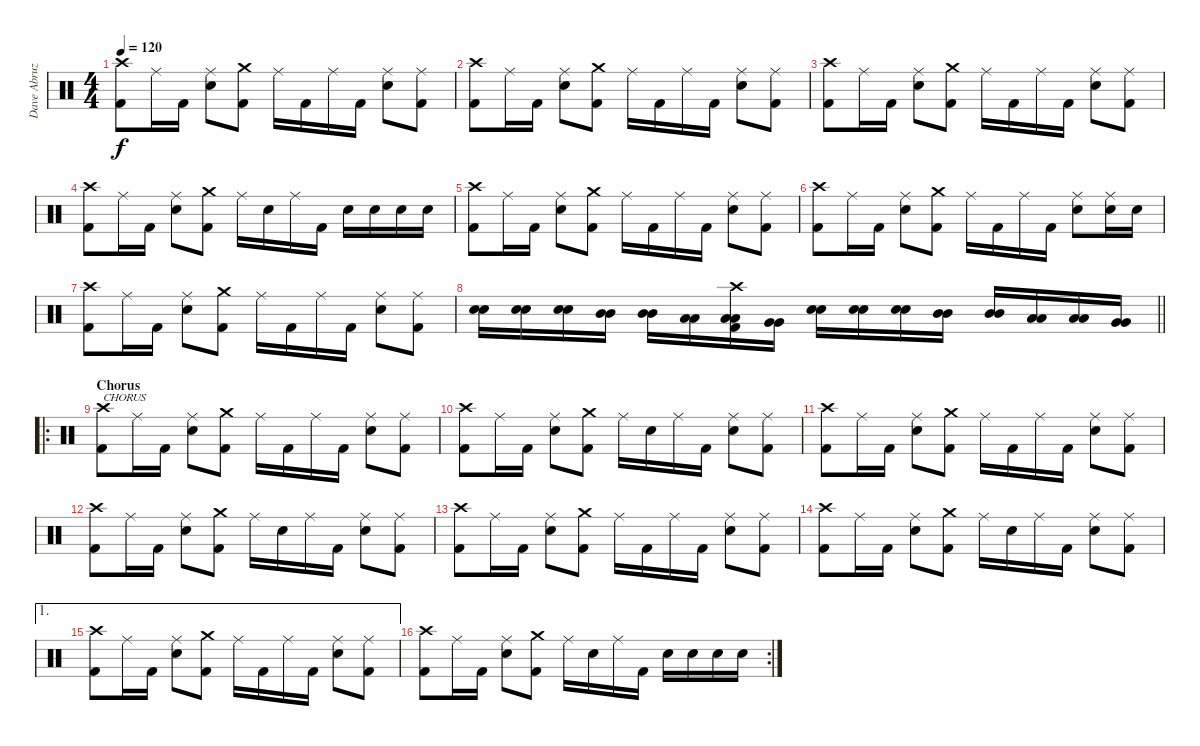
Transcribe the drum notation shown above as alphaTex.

\track ("Dave Abruzzesse" "Dave Abruz") {instrument percussion}
\staff {score}
\articulation defaults
\ts (4 4)
\tempo 120
\clef neutral
\ks c
("Crash high (hit)" "Kick (hit) 2").8{dy f} "Ride (middle)".16 "Kick (hit) 2".16 ("Ride (middle)" "Electric Snare (hit)").8 ("Crash medium (hit)" "Kick (hit) 2").8 "Ride (middle)".16 "Kick (hit) 2".16 "Ride (middle)".16 "Kick (hit) 2".16 ("Ride (middle)" "Electric Snare (hit)").8 ("Ride (middle)" "Kick (hit) 2").8 |
("Crash high (hit)" "Kick (hit) 2").8 "Ride (middle)".16 "Kick (hit) 2".16 ("Ride (middle)" "Electric Snare (hit)").8 ("Crash medium (hit)" "Kick (hit) 2").8 "Ride (middle)".16 "Kick (hit) 2".16 "Ride (middle)".16 "Kick (hit) 2".16 ("Ride (middle)" "Electric Snare (hit)").8 ("Ride (middle)" "Kick (hit) 2").8 |
("Crash high (hit)" "Kick (hit) 2").8 "Ride (middle)".16 "Kick (hit) 2".16 ("Ride (middle)" "Electric Snare (hit)").8 ("Crash medium (hit)" "Kick (hit) 2").8 "Ride (middle)".16 "Kick (hit) 2".16 "Ride (middle)".16 "Kick (hit) 2".16 ("Ride (middle)" "Electric Snare (hit)").8 ("Ride (middle)" "Kick (hit) 2").8 |
("Crash high (hit)" "Kick (hit) 2").8 "Ride (middle)".16 "Kick (hit) 2".16 ("Ride (middle)" "Electric Snare (hit)").8 ("Crash medium (hit)" "Kick (hit) 2").8 "Ride (middle)".16 "Electric Snare (hit)".16 "Ride (middle)".16 "Kick (hit) 2".16 "Electric Snare (hit)".16 "Electric Snare (hit)".16 "Electric Snare (hit)".16 "Electric Snare (hit)".16 |
("Crash high (hit)" "Kick (hit) 2").8 "Ride (middle)".16 "Kick (hit) 2".16 ("Ride (middle)" "Electric Snare (hit)").8 ("Crash medium (hit)" "Kick (hit) 2").8 "Ride (middle)".16 "Kick (hit) 2".16 "Ride (middle)".16 "Kick (hit) 2".16 ("Ride (middle)" "Electric Snare (hit)").8 ("Ride (middle)" "Kick (hit) 2").8 |
("Crash high (hit)" "Kick (hit) 2").8 "Ride (middle)".16 "Kick (hit) 2".16 ("Ride (middle)" "Electric Snare (hit)").8 ("Crash medium (hit)" "Kick (hit) 2").8 "Ride (middle)".16 "Kick (hit) 2".16 "Ride (middle)".16 "Kick (hit) 2".16 ("Ride (middle)" "Electric Snare (hit)").8 ("Ride (middle)" "Electric Snare (hit)").16 "Electric Snare (hit)".16 |
("Crash high (hit)" "Kick (hit) 2").8 "Ride (middle)".16 "Kick (hit) 2".16 ("Ride (middle)" "Electric Snare (hit)").8 ("Crash medium (hit)" "Kick (hit) 2").8 "Ride (middle)".16 "Kick (hit) 2".16 "Ride (middle)".16 "Kick (hit) 2".16 ("Ride (middle)" "Electric Snare (hit)").8 ("Ride (middle)" "Kick (hit) 2").8 |
\barLineRight lightlight
("Electric Snare (hit)" "Electric Snare (hit)").16 ("Electric Snare (hit)" "Electric Snare (hit)").16 ("Electric Snare (hit)" "Electric Snare (hit)").16 ("Mid Tom (hit)" "Mid Tom (hit)").16 ("Mid Tom (hit)" "Mid Tom (hit)").16 ("Low Tom (hit)" "Low Tom (hit)").16 ("Crash high (hit)" "Kick (hit) 2" "Low Tom (hit)" "Low Tom (hit)").16 ("Very Low Tom (hit)" "Very Low Tom (hit)").16 ("Electric Snare (hit)" "Electric Snare (hit)").16 ("Electric Snare (hit)" "Electric Snare (hit)").16 ("Electric Snare (hit)" "Electric Snare (hit)").16 ("Mid Tom (hit)" "Mid Tom (hit)").16 ("Mid Tom (hit)" "Mid Tom (hit)").16 ("Low Tom (hit)" "Low Tom (hit)").16 ("Low Tom (hit)" "Low Tom (hit)").16 ("Very Low Tom (hit)" "Very Low Tom (hit)").16 |
\ro
\section ("" "Chorus")
("Crash high (hit)" "Kick (hit) 2").8{txt "CHORUS"} "Ride (middle)".16 "Kick (hit) 2".16 ("Ride (middle)" "Electric Snare (hit)").8 ("Crash medium (hit)" "Kick (hit) 2").8 "Ride (middle)".16 "Kick (hit) 2".16 "Ride (middle)".16 "Kick (hit) 2".16 ("Ride (middle)" "Electric Snare (hit)").8 ("Ride (middle)" "Kick (hit) 2").8 |
("Crash high (hit)" "Kick (hit) 2").8 "Ride (middle)".16 "Kick (hit) 2".16 ("Ride (middle)" "Electric Snare (hit)").8 ("Crash medium (hit)" "Kick (hit) 2").8 "Ride (middle)".16 "Electric Snare (hit)".16 "Ride (middle)".16 "Kick (hit) 2".16 ("Ride (middle)" "Electric Snare (hit)").8 ("Ride (middle)" "Kick (hit) 2").8 |
("Crash high (hit)" "Kick (hit) 2").8 "Ride (middle)".16 "Kick (hit) 2".16 ("Ride (middle)" "Electric Snare (hit)").8 ("Crash medium (hit)" "Kick (hit) 2").8 "Ride (middle)".16 "Kick (hit) 2".16 "Ride (middle)".16 "Kick (hit) 2".16 ("Ride (middle)" "Electric Snare (hit)").8 ("Ride (middle)" "Kick (hit) 2").8 |
("Crash high (hit)" "Kick (hit) 2").8 "Ride (middle)".16 "Kick (hit) 2".16 ("Ride (middle)" "Electric Snare (hit)").8 ("Crash medium (hit)" "Kick (hit) 2").8 "Ride (middle)".16 "Electric Snare (hit)".16 "Ride (middle)".16 "Kick (hit) 2".16 ("Ride (middle)" "Electric Snare (hit)").8 ("Ride (middle)" "Kick (hit) 2").8 |
("Crash high (hit)" "Kick (hit) 2").8 "Ride (middle)".16 "Kick (hit) 2".16 ("Ride (middle)" "Electric Snare (hit)").8 ("Crash medium (hit)" "Kick (hit) 2").8 "Ride (middle)".16 "Kick (hit) 2".16 "Ride (middle)".16 "Kick (hit) 2".16 ("Ride (middle)" "Electric Snare (hit)").8 ("Ride (middle)" "Kick (hit) 2").8 |
("Crash high (hit)" "Kick (hit) 2").8 "Ride (middle)".16 "Kick (hit) 2".16 ("Ride (middle)" "Electric Snare (hit)").8 ("Crash medium (hit)" "Kick (hit) 2").8 "Ride (middle)".16 "Electric Snare (hit)".16 "Ride (middle)".16 "Kick (hit) 2".16 ("Ride (middle)" "Electric Snare (hit)").8 ("Ride (middle)" "Kick (hit) 2").8 |
\ae 1
("Crash high (hit)" "Kick (hit) 2").8 "Ride (middle)".16 "Kick (hit) 2".16 ("Ride (middle)" "Electric Snare (hit)").8 ("Crash medium (hit)" "Kick (hit) 2").8 "Ride (middle)".16 "Kick (hit) 2".16 "Ride (middle)".16 "Kick (hit) 2".16 ("Ride (middle)" "Electric Snare (hit)").8 ("Ride (middle)" "Kick (hit) 2").8 |
\rc 2
("Crash high (hit)" "Kick (hit) 2").8 "Ride (middle)".16 "Kick (hit) 2".16 ("Ride (middle)" "Electric Snare (hit)").8 ("Crash medium (hit)" "Kick (hit) 2").8 "Ride (middle)".16 "Electric Snare (hit)".16 "Ride (middle)".16 "Kick (hit) 2".16 "Electric Snare (hit)".16 "Electric Snare (hit)".16 "Electric Snare (hit)".16 "Electric Snare (hit)".16
